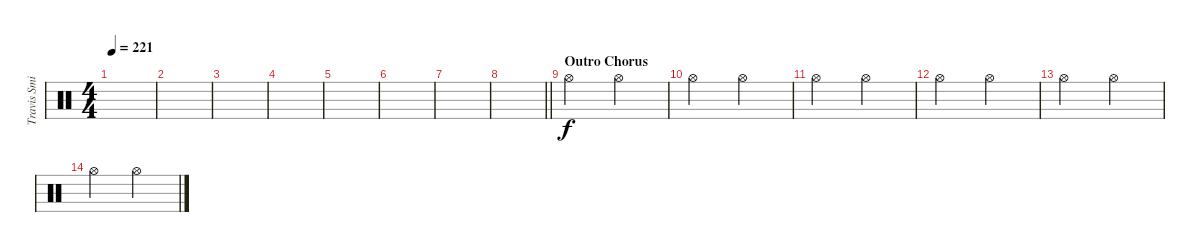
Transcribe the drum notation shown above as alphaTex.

\track ("Travis Smith" "Travis Smi") {instrument percussion}
\staff {score}
\articulation defaults
\ts (4 4)
\tempo 221
\clef neutral
\ks c
|
|
|
|
|
|
|
\barLineRight lightlight
|
\section ("" "Outro Chorus")
"Hi-Hat (open)".2 "Hi-Hat (open)".2 |
"Hi-Hat (open)".2 "Hi-Hat (open)".2 |
"Hi-Hat (open)".2 "Hi-Hat (open)".2 |
"Hi-Hat (open)".2 "Hi-Hat (open)".2 |
"Hi-Hat (open)".2 "Hi-Hat (open)".2 |
"Hi-Hat (open)".2 "Hi-Hat (open)".2
